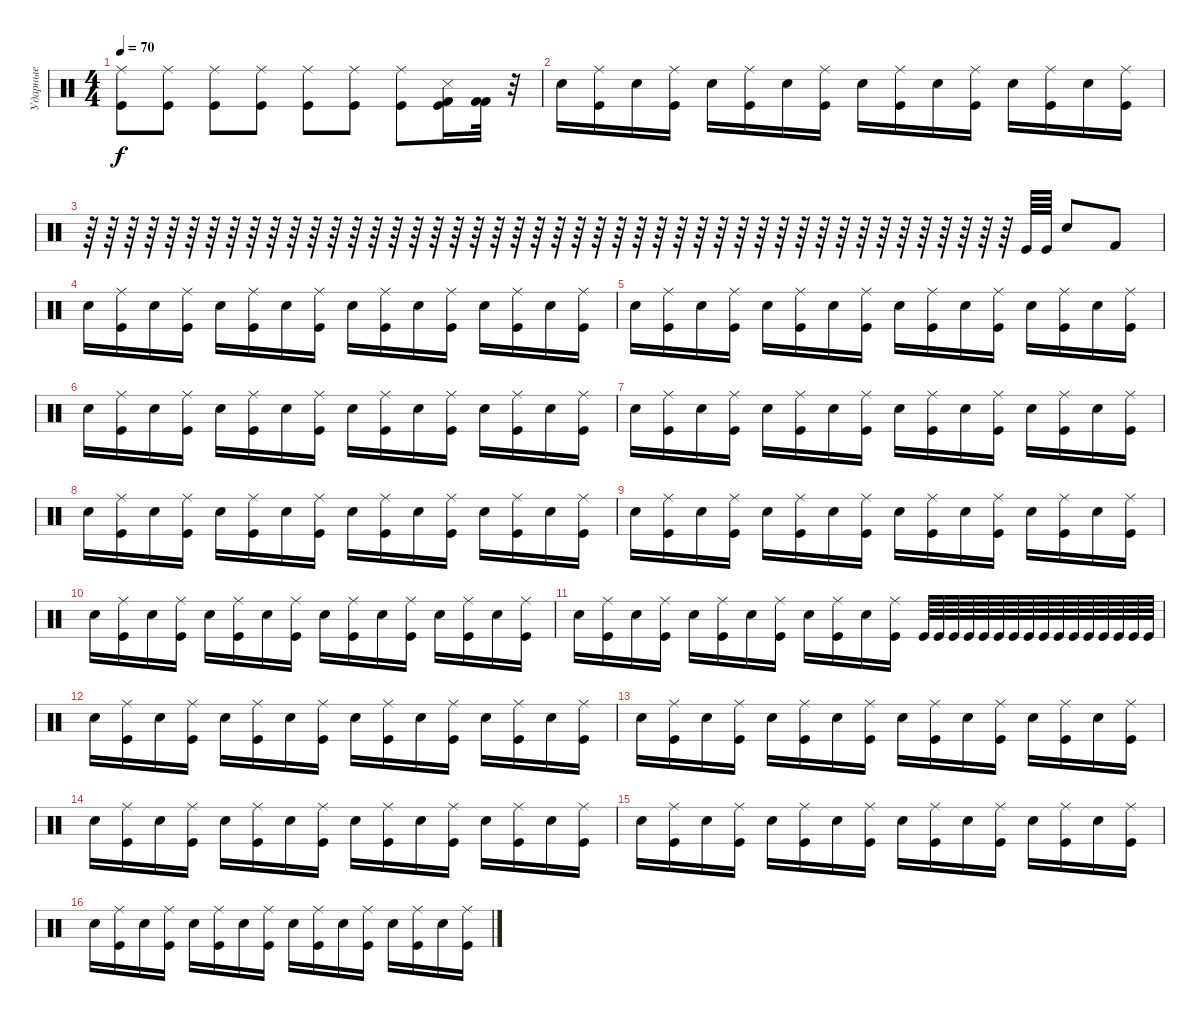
\track ("Ударные" "Ударные") {instrument percussion}
\staff {score}
\articulation defaults
\ts (4 4)
\tempo 70
\clef neutral
\ks c
("Kick (hit)" "Ride (middle)").8{dy f} ("Kick (hit)" "Ride (middle)").8 ("Kick (hit)" "Ride (middle)").8 ("Kick (hit)" "Ride (middle)").8 ("Kick (hit)" "Ride (middle)").8 ("Kick (hit)" "Ride (middle)").8 ("Kick (hit)" "Ride (middle)").8 ("Kick (hit) 2" "Snare (side stick) 3" "Kick (hit)").16 ("Kick (hit) 2" "Kick (hit) 2").32 r.32 |
"Snare (hit) 2".16 ("Kick (hit)" "Ride (middle)").16 "Snare (hit) 2".16 ("Kick (hit)" "Ride (middle)").16 "Snare (hit) 2".16 ("Kick (hit)" "Ride (middle)").16 "Snare (hit) 2".16 ("Kick (hit)" "Ride (middle)").16 "Snare (hit) 2".16 ("Kick (hit)" "Ride (middle)").16 "Snare (hit) 2".16 ("Kick (hit)" "Ride (middle)").16 "Snare (hit) 2".16 ("Kick (hit)" "Ride (middle)").16 "Snare (hit) 2".16 ("Kick (hit)" "Ride (middle)").16 |
r.64 r.64 r.64 r.64 r.64 r.64 r.64 r.64 r.64 r.64 r.64 r.64 r.64 r.64 r.64 r.64 r.64 r.64 r.64 r.64 r.64 r.64 r.64 r.64 r.64 r.64 r.64 r.64 r.64 r.64 r.64 r.64 r.64 r.64 r.64 r.64 r.64 r.64 r.64 r.64 r.64 r.64 r.64 r.64 r.64 r.64 "Kick (hit)".64 "Kick (hit)".64 "Snare (hit) 2".8 "Kick (hit) 2".8 |
"Snare (hit) 2".16 ("Kick (hit)" "Ride (middle)").16 "Snare (hit) 2".16 ("Kick (hit)" "Ride (middle)").16 "Snare (hit) 2".16 ("Kick (hit)" "Ride (middle)").16 "Snare (hit) 2".16 ("Kick (hit)" "Ride (middle)").16 "Snare (hit) 2".16 ("Kick (hit)" "Ride (middle)").16 "Snare (hit) 2".16 ("Kick (hit)" "Ride (middle)").16 "Snare (hit) 2".16 ("Kick (hit)" "Ride (middle)").16 "Snare (hit) 2".16 ("Kick (hit)" "Ride (middle)").16 |
"Snare (hit) 2".16 ("Kick (hit)" "Ride (middle)").16 "Snare (hit) 2".16 ("Kick (hit)" "Ride (middle)").16 "Snare (hit) 2".16 ("Kick (hit)" "Ride (middle)").16 "Snare (hit) 2".16 ("Kick (hit)" "Ride (middle)").16 "Snare (hit) 2".16 ("Kick (hit)" "Ride (middle)").16 "Snare (hit) 2".16 ("Kick (hit)" "Ride (middle)").16 "Snare (hit) 2".16 ("Kick (hit)" "Ride (middle)").16 "Snare (hit) 2".16 ("Kick (hit)" "Ride (middle)").16 |
"Snare (hit) 2".16 ("Kick (hit)" "Ride (middle)").16 "Snare (hit) 2".16 ("Kick (hit)" "Ride (middle)").16 "Snare (hit) 2".16 ("Kick (hit)" "Ride (middle)").16 "Snare (hit) 2".16 ("Kick (hit)" "Ride (middle)").16 "Snare (hit) 2".16 ("Kick (hit)" "Ride (middle)").16 "Snare (hit) 2".16 ("Kick (hit)" "Ride (middle)").16 "Snare (hit) 2".16 ("Kick (hit)" "Ride (middle)").16 "Snare (hit) 2".16 ("Kick (hit)" "Ride (middle)").16 |
"Snare (hit) 2".16 ("Kick (hit)" "Ride (middle)").16 "Snare (hit) 2".16 ("Kick (hit)" "Ride (middle)").16 "Snare (hit) 2".16 ("Kick (hit)" "Ride (middle)").16 "Snare (hit) 2".16 ("Kick (hit)" "Ride (middle)").16 "Snare (hit) 2".16 ("Kick (hit)" "Ride (middle)").16 "Snare (hit) 2".16 ("Kick (hit)" "Ride (middle)").16 "Snare (hit) 2".16 ("Kick (hit)" "Ride (middle)").16 "Snare (hit) 2".16 ("Kick (hit)" "Ride (middle)").16 |
"Snare (hit) 2".16 ("Kick (hit)" "Ride (middle)").16 "Snare (hit) 2".16 ("Kick (hit)" "Ride (middle)").16 "Snare (hit) 2".16 ("Kick (hit)" "Ride (middle)").16 "Snare (hit) 2".16 ("Kick (hit)" "Ride (middle)").16 "Snare (hit) 2".16 ("Kick (hit)" "Ride (middle)").16 "Snare (hit) 2".16 ("Kick (hit)" "Ride (middle)").16 "Snare (hit) 2".16 ("Kick (hit)" "Ride (middle)").16 "Snare (hit) 2".16 ("Kick (hit)" "Ride (middle)").16 |
"Snare (hit) 2".16 ("Kick (hit)" "Ride (middle)").16 "Snare (hit) 2".16 ("Kick (hit)" "Ride (middle)").16 "Snare (hit) 2".16 ("Kick (hit)" "Ride (middle)").16 "Snare (hit) 2".16 ("Kick (hit)" "Ride (middle)").16 "Snare (hit) 2".16 ("Kick (hit)" "Ride (middle)").16 "Snare (hit) 2".16 ("Kick (hit)" "Ride (middle)").16 "Snare (hit) 2".16 ("Kick (hit)" "Ride (middle)").16 "Snare (hit) 2".16 ("Kick (hit)" "Ride (middle)").16 |
"Snare (hit) 2".16 ("Kick (hit)" "Ride (middle)").16 "Snare (hit) 2".16 ("Kick (hit)" "Ride (middle)").16 "Snare (hit) 2".16 ("Kick (hit)" "Ride (middle)").16 "Snare (hit) 2".16 ("Kick (hit)" "Ride (middle)").16 "Snare (hit) 2".16 ("Kick (hit)" "Ride (middle)").16 "Snare (hit) 2".16 ("Kick (hit)" "Ride (middle)").16 "Snare (hit) 2".16 ("Kick (hit)" "Ride (middle)").16 "Snare (hit) 2".16 ("Kick (hit)" "Ride (middle)").16 |
"Snare (hit) 2".16 ("Kick (hit)" "Ride (middle)").16 "Snare (hit) 2".16 ("Kick (hit)" "Ride (middle)").16 "Snare (hit) 2".16 ("Kick (hit)" "Ride (middle)").16 "Snare (hit) 2".16 ("Kick (hit)" "Ride (middle)").16 "Snare (hit) 2".16 ("Kick (hit)" "Ride (middle)").16 "Snare (hit) 2".16 ("Kick (hit)" "Ride (middle)").16 "Kick (hit)".64 "Kick (hit)".64 "Kick (hit)".64 "Kick (hit)".64 "Kick (hit)".64 "Kick (hit)".64 "Kick (hit)".64 "Kick (hit)".64 "Kick (hit)".64 "Kick (hit)".64 "Kick (hit)".64 "Kick (hit)".64 "Kick (hit)".64 "Kick (hit)".64 "Kick (hit)".64 "Kick (hit)".64 |
"Snare (hit) 2".16 ("Kick (hit)" "Ride (middle)").16 "Snare (hit) 2".16 ("Kick (hit)" "Ride (middle)").16 "Snare (hit) 2".16 ("Kick (hit)" "Ride (middle)").16 "Snare (hit) 2".16 ("Kick (hit)" "Ride (middle)").16 "Snare (hit) 2".16 ("Kick (hit)" "Ride (middle)").16 "Snare (hit) 2".16 ("Kick (hit)" "Ride (middle)").16 "Snare (hit) 2".16 ("Kick (hit)" "Ride (middle)").16 "Snare (hit) 2".16 ("Kick (hit)" "Ride (middle)").16 |
"Snare (hit) 2".16 ("Kick (hit)" "Ride (middle)").16 "Snare (hit) 2".16 ("Kick (hit)" "Ride (middle)").16 "Snare (hit) 2".16 ("Kick (hit)" "Ride (middle)").16 "Snare (hit) 2".16 ("Kick (hit)" "Ride (middle)").16 "Snare (hit) 2".16 ("Kick (hit)" "Ride (middle)").16 "Snare (hit) 2".16 ("Kick (hit)" "Ride (middle)").16 "Snare (hit) 2".16 ("Kick (hit)" "Ride (middle)").16 "Snare (hit) 2".16 ("Kick (hit)" "Ride (middle)").16 |
"Snare (hit) 2".16 ("Kick (hit)" "Ride (middle)").16 "Snare (hit) 2".16 ("Kick (hit)" "Ride (middle)").16 "Snare (hit) 2".16 ("Kick (hit)" "Ride (middle)").16 "Snare (hit) 2".16 ("Kick (hit)" "Ride (middle)").16 "Snare (hit) 2".16 ("Kick (hit)" "Ride (middle)").16 "Snare (hit) 2".16 ("Kick (hit)" "Ride (middle)").16 "Snare (hit) 2".16 ("Kick (hit)" "Ride (middle)").16 "Snare (hit) 2".16 ("Kick (hit)" "Ride (middle)").16 |
"Snare (hit) 2".16 ("Kick (hit)" "Ride (middle)").16 "Snare (hit) 2".16 ("Kick (hit)" "Ride (middle)").16 "Snare (hit) 2".16 ("Kick (hit)" "Ride (middle)").16 "Snare (hit) 2".16 ("Kick (hit)" "Ride (middle)").16 "Snare (hit) 2".16 ("Kick (hit)" "Ride (middle)").16 "Snare (hit) 2".16 ("Kick (hit)" "Ride (middle)").16 "Snare (hit) 2".16 ("Kick (hit)" "Ride (middle)").16 "Snare (hit) 2".16 ("Kick (hit)" "Ride (middle)").16 |
"Snare (hit) 2".16 ("Kick (hit)" "Ride (middle)").16 "Snare (hit) 2".16 ("Kick (hit)" "Ride (middle)").16 "Snare (hit) 2".16 ("Kick (hit)" "Ride (middle)").16 "Snare (hit) 2".16 ("Kick (hit)" "Ride (middle)").16 "Snare (hit) 2".16 ("Kick (hit)" "Ride (middle)").16 "Snare (hit) 2".16 ("Kick (hit)" "Ride (middle)").16 "Snare (hit) 2".16 ("Kick (hit)" "Ride (middle)").16 "Snare (hit) 2".16 ("Kick (hit)" "Ride (middle)").16
